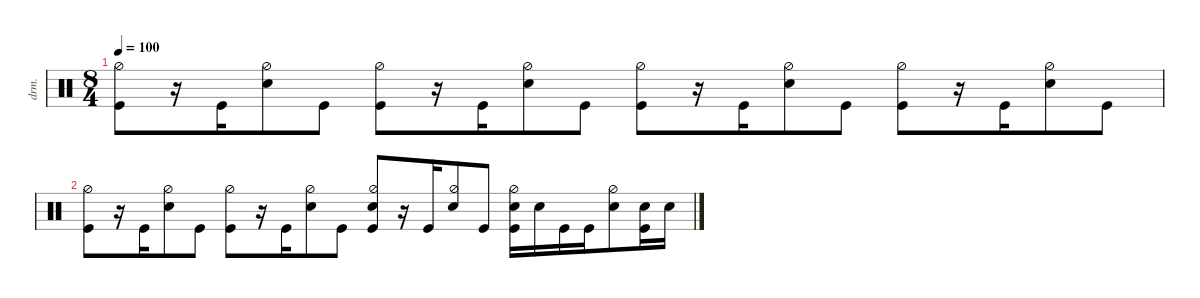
\defaultSystemsLayout 4
\hideDynamics
\bracketExtendMode nobrackets
\otherSystemsTrackNameOrientation horizontal
\track ("Drumkit" "drm.") {instrument percussion}
\staff {score}
\articulation defaults
\ts (8 4)
\beaming (8 4 4 4 4)
\tempo 100
\clef neutral
\ks c
("Kick (hit)" "Hi-Hat (half)").8{dy mf beam Down} r.16{beam Down} "Kick (hit)".16{beam Down} ("Hi-Hat (half)" "Snare (hit) 2").8{beam Down} "Kick (hit)".8{beam Down} ("Hi-Hat (half)" "Kick (hit)").8{beam Down} r.16{beam Down} "Kick (hit)".16{beam Down} ("Hi-Hat (half)" "Snare (hit) 2").8{beam Down} "Kick (hit)".8{beam Down} ("Kick (hit)" "Hi-Hat (half)").8{beam Down} r.16{beam Down} "Kick (hit)".16{beam Down} ("Hi-Hat (half)" "Snare (hit) 2").8{beam Down} "Kick (hit)".8{beam Down} ("Hi-Hat (half)" "Kick (hit)").8{beam Down} r.16{beam Down} "Kick (hit)".16{beam Down} ("Hi-Hat (half)" "Snare (hit) 2").8{beam Down} "Kick (hit)".8{beam Down} |
("Kick (hit)" "Hi-Hat (half)").8{beam Down} r.16{beam Down} "Kick (hit)".16{beam Down} ("Hi-Hat (half)" "Snare (hit) 2").8{beam Down} "Kick (hit)".8{beam Down} ("Hi-Hat (half)" "Kick (hit)").8{beam Down} r.16{beam Down} "Kick (hit)".16{beam Down} ("Hi-Hat (half)" "Snare (hit) 2").8{beam Down} "Kick (hit)".8{beam Down} ("Kick (hit)" "Hi-Hat (half)" "Snare (hit) 2").8{beam Up} r.16{beam Up} "Kick (hit)".16{beam Up} ("Hi-Hat (half)" "Snare (hit) 2").8{beam Up} "Kick (hit)".8{beam Up} ("Hi-Hat (half)" "Kick (hit)" "Snare (hit) 2").16{beam Down} "Snare (hit) 2".16{beam Down} "Kick (hit)".16{beam Down} "Kick (hit)".16{beam Down} ("Hi-Hat (half)" "Snare (hit) 2").8{beam Down} ("Kick (hit)" "Snare (hit) 2").16{beam Down} "Snare (hit) 2".16{beam Down}
